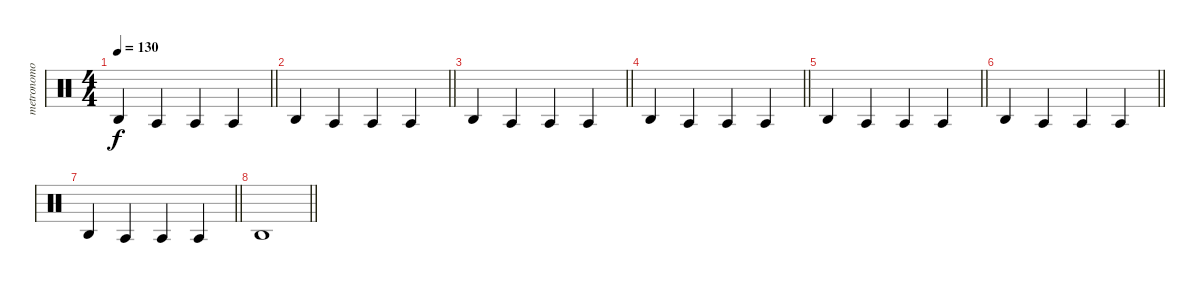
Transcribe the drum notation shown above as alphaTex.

\track ("metronomo" "metronomo") {mute instrument percussion}
\staff {score}
\articulation defaults
\ts (4 4)
\tempo 130
\clef neutral
\barLineRight lightlight
\ks c "Agogo high (hit)".4{dy f} "Agogo tow (hit)".4 "Agogo tow (hit)".4 "Agogo tow (hit)".4
|
\barLineRight lightlight "Agogo high (hit)".4 "Agogo tow (hit)".4 "Agogo tow (hit)".4 "Agogo tow (hit)".4
|
\barLineRight lightlight "Agogo high (hit)".4 "Agogo tow (hit)".4 "Agogo tow (hit)".4 "Agogo tow (hit)".4
|
\barLineRight lightlight "Agogo high (hit)".4 "Agogo tow (hit)".4 "Agogo tow (hit)".4 "Agogo tow (hit)".4
|
\barLineRight lightlight "Agogo high (hit)".4 "Agogo tow (hit)".4 "Agogo tow (hit)".4 "Agogo tow (hit)".4
|
\barLineRight lightlight "Agogo high (hit)".4 "Agogo tow (hit)".4 "Agogo tow (hit)".4 "Agogo tow (hit)".4
|
\barLineRight lightlight "Agogo high (hit)".4 "Agogo tow (hit)".4 "Agogo tow (hit)".4 "Agogo tow (hit)".4
|
\barLineRight lightlight "Agogo high (hit)".1
